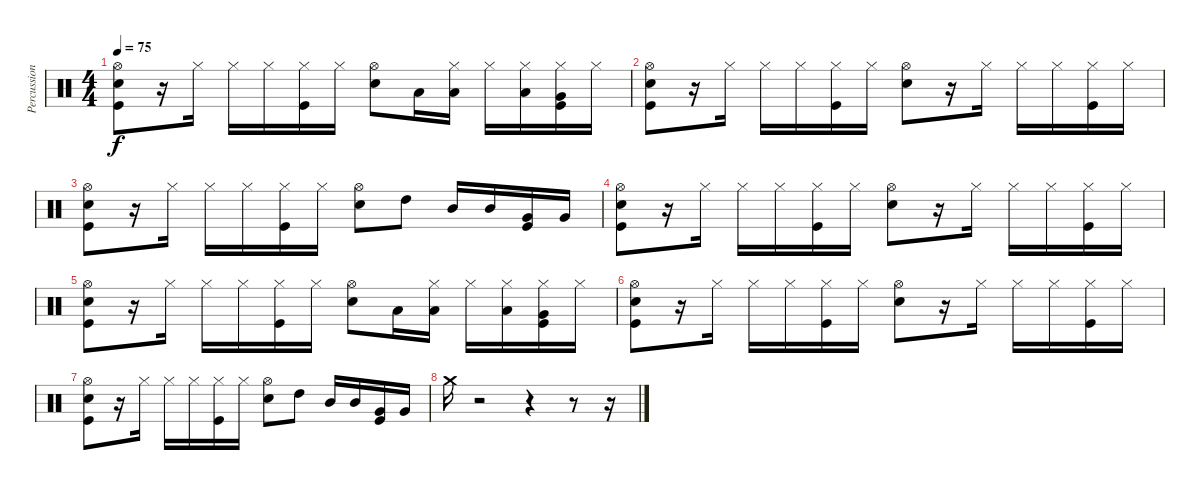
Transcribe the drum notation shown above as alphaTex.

\track ("Percussion" "Percussion") {instrument percussion}
\staff {score}
\articulation defaults
\ts (4 4)
\tempo 75
\clef neutral
\ks c
("Hi-Hat (open)" "Kick (hit)" "Snare (hit) 2").8{dy f} r.16 "Hi-Hat (closed)".16 "Hi-Hat (closed)".16 "Hi-Hat (closed)".16 ("Kick (hit)" "Hi-Hat (closed)").16 "Hi-Hat (closed)".16 ("Snare (hit) 2" "Hi-Hat (open)").8 "Low Tom (hit)".16 ("Low Tom (hit)" "Hi-Hat (closed)").16 "Hi-Hat (closed)".16 ("Low Tom (hit)" "Hi-Hat (closed)").16 ("Very Low Tom (hit)" "Kick (hit)" "Hi-Hat (closed)").16 "Hi-Hat (closed)".16 |
("Hi-Hat (open)" "Kick (hit)" "Snare (hit) 2").8 r.16 "Hi-Hat (closed)".16 "Hi-Hat (closed)".16 "Hi-Hat (closed)".16 ("Kick (hit)" "Hi-Hat (closed)").16 "Hi-Hat (closed)".16 ("Snare (hit) 2" "Hi-Hat (open)").8 r.16 "Hi-Hat (closed)".16 "Hi-Hat (closed)".16 "Hi-Hat (closed)".16 ("Kick (hit)" "Hi-Hat (closed)").16 "Hi-Hat (closed)".16 |
("Hi-Hat (open)" "Kick (hit)" "Snare (hit) 2").8 r.16 "Hi-Hat (closed)".16 "Hi-Hat (closed)".16 "Hi-Hat (closed)".16 ("Kick (hit)" "Hi-Hat (closed)").16 "Hi-Hat (closed)".16 ("Snare (hit) 2" "Hi-Hat (open)").8 "High Tom (hit)".8 "Mid Tom (hit)".16 "Mid Tom (hit)".16 ("Very Low Tom (hit)" "Kick (hit)").16 "Very Low Tom (hit)".16 |
("Hi-Hat (open)" "Kick (hit)" "Snare (hit) 2").8 r.16 "Hi-Hat (closed)".16 "Hi-Hat (closed)".16 "Hi-Hat (closed)".16 ("Kick (hit)" "Hi-Hat (closed)").16 "Hi-Hat (closed)".16 ("Snare (hit) 2" "Hi-Hat (open)").8 r.16 "Hi-Hat (closed)".16 "Hi-Hat (closed)".16 "Hi-Hat (closed)".16 ("Kick (hit)" "Hi-Hat (closed)").16 "Hi-Hat (closed)".16 |
("Hi-Hat (open)" "Kick (hit)" "Snare (hit) 2").8 r.16 "Hi-Hat (closed)".16 "Hi-Hat (closed)".16 "Hi-Hat (closed)".16 ("Kick (hit)" "Hi-Hat (closed)").16 "Hi-Hat (closed)".16 ("Snare (hit) 2" "Hi-Hat (open)").8 "Low Tom (hit)".16 ("Low Tom (hit)" "Hi-Hat (closed)").16 "Hi-Hat (closed)".16 ("Low Tom (hit)" "Hi-Hat (closed)").16 ("Very Low Tom (hit)" "Kick (hit)" "Hi-Hat (closed)").16 "Hi-Hat (closed)".16 |
("Hi-Hat (open)" "Kick (hit)" "Snare (hit) 2").8 r.16 "Hi-Hat (closed)".16 "Hi-Hat (closed)".16 "Hi-Hat (closed)".16 ("Kick (hit)" "Hi-Hat (closed)").16 "Hi-Hat (closed)".16 ("Snare (hit) 2" "Hi-Hat (open)").8 r.16 "Hi-Hat (closed)".16 "Hi-Hat (closed)".16 "Hi-Hat (closed)".16 ("Kick (hit)" "Hi-Hat (closed)").16 "Hi-Hat (closed)".16 |
("Hi-Hat (open)" "Kick (hit)" "Snare (hit) 2").8 r.16 "Hi-Hat (closed)".16 "Hi-Hat (closed)".16 "Hi-Hat (closed)".16 ("Kick (hit)" "Hi-Hat (closed)").16 "Hi-Hat (closed)".16 ("Snare (hit) 2" "Hi-Hat (open)").8 "High Tom (hit)".8 "Mid Tom (hit)".16 "Mid Tom (hit)".16 ("Very Low Tom (hit)" "Kick (hit)").16 "Very Low Tom (hit)".16 |
"Crash medium (hit)".16 r.2 r.4 r.8 r.16
